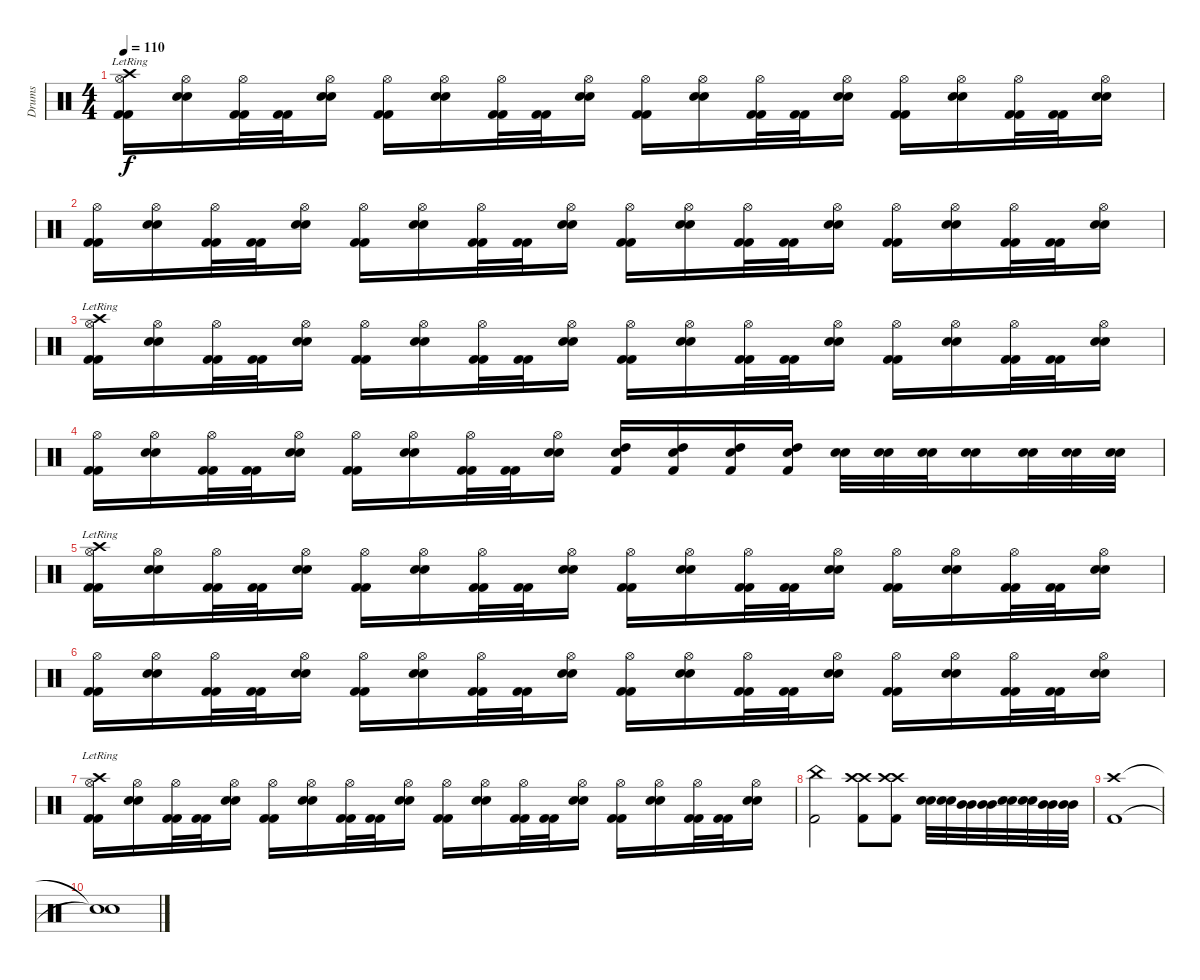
\track ("Drums" "Drums") {instrument percussion}
\staff {score}
\articulation defaults
\ts (4 4)
\tempo 110
\clef neutral
\ks c
("Kick (hit) 2" "Kick (hit) 2" "Hi-Hat (open)" "Crash high (hit)"{lr}).16{dy f} ("Snare (hit) 2" "Snare (hit) 2" "Hi-Hat (open)").16 ("Kick (hit) 2" "Kick (hit) 2" "Hi-Hat (open)").32 ("Kick (hit) 2" "Kick (hit) 2").32 ("Snare (hit) 2" "Snare (hit) 2" "Hi-Hat (open)").16 ("Kick (hit) 2" "Kick (hit) 2" "Hi-Hat (open)").16 ("Snare (hit) 2" "Snare (hit) 2" "Hi-Hat (open)").16 ("Kick (hit) 2" "Kick (hit) 2" "Hi-Hat (open)").32 ("Kick (hit) 2" "Kick (hit) 2").32 ("Snare (hit) 2" "Snare (hit) 2" "Hi-Hat (open)").16 ("Kick (hit) 2" "Kick (hit) 2" "Hi-Hat (open)").16 ("Snare (hit) 2" "Snare (hit) 2" "Hi-Hat (open)").16 ("Kick (hit) 2" "Kick (hit) 2" "Hi-Hat (open)").32 ("Kick (hit) 2" "Kick (hit) 2").32 ("Snare (hit) 2" "Snare (hit) 2" "Hi-Hat (open)").16 ("Kick (hit) 2" "Kick (hit) 2" "Hi-Hat (open)").16 ("Snare (hit) 2" "Snare (hit) 2" "Hi-Hat (open)").16 ("Kick (hit) 2" "Kick (hit) 2" "Hi-Hat (open)").32 ("Kick (hit) 2" "Kick (hit) 2").32 ("Snare (hit) 2" "Snare (hit) 2" "Hi-Hat (open)").16 |
("Kick (hit) 2" "Kick (hit) 2" "Hi-Hat (open)").16 ("Snare (hit) 2" "Snare (hit) 2" "Hi-Hat (open)").16 ("Kick (hit) 2" "Kick (hit) 2" "Hi-Hat (open)").32 ("Kick (hit) 2" "Kick (hit) 2").32 ("Snare (hit) 2" "Snare (hit) 2" "Hi-Hat (open)").16 ("Kick (hit) 2" "Kick (hit) 2" "Hi-Hat (open)").16 ("Snare (hit) 2" "Snare (hit) 2" "Hi-Hat (open)").16 ("Kick (hit) 2" "Kick (hit) 2" "Hi-Hat (open)").32 ("Kick (hit) 2" "Kick (hit) 2").32 ("Snare (hit) 2" "Snare (hit) 2" "Hi-Hat (open)").16 ("Kick (hit) 2" "Kick (hit) 2" "Hi-Hat (open)").16 ("Snare (hit) 2" "Snare (hit) 2" "Hi-Hat (open)").16 ("Kick (hit) 2" "Kick (hit) 2" "Hi-Hat (open)").32 ("Kick (hit) 2" "Kick (hit) 2").32 ("Snare (hit) 2" "Snare (hit) 2" "Hi-Hat (open)").16 ("Kick (hit) 2" "Kick (hit) 2" "Hi-Hat (open)").16 ("Snare (hit) 2" "Snare (hit) 2" "Hi-Hat (open)").16 ("Kick (hit) 2" "Kick (hit) 2" "Hi-Hat (open)").32 ("Kick (hit) 2" "Kick (hit) 2").32 ("Snare (hit) 2" "Snare (hit) 2" "Hi-Hat (open)").16 |
("Kick (hit) 2" "Kick (hit) 2" "Hi-Hat (open)" "Crash high (hit)"{lr}).16 ("Snare (hit) 2" "Snare (hit) 2" "Hi-Hat (open)").16 ("Kick (hit) 2" "Kick (hit) 2" "Hi-Hat (open)").32 ("Kick (hit) 2" "Kick (hit) 2").32 ("Snare (hit) 2" "Snare (hit) 2" "Hi-Hat (open)").16 ("Kick (hit) 2" "Kick (hit) 2" "Hi-Hat (open)").16 ("Snare (hit) 2" "Snare (hit) 2" "Hi-Hat (open)").16 ("Kick (hit) 2" "Kick (hit) 2" "Hi-Hat (open)").32 ("Kick (hit) 2" "Kick (hit) 2").32 ("Snare (hit) 2" "Snare (hit) 2" "Hi-Hat (open)").16 ("Kick (hit) 2" "Kick (hit) 2" "Hi-Hat (open)").16 ("Snare (hit) 2" "Snare (hit) 2" "Hi-Hat (open)").16 ("Kick (hit) 2" "Kick (hit) 2" "Hi-Hat (open)").32 ("Kick (hit) 2" "Kick (hit) 2").32 ("Snare (hit) 2" "Snare (hit) 2" "Hi-Hat (open)").16 ("Kick (hit) 2" "Kick (hit) 2" "Hi-Hat (open)").16 ("Snare (hit) 2" "Snare (hit) 2" "Hi-Hat (open)").16 ("Kick (hit) 2" "Kick (hit) 2" "Hi-Hat (open)").32 ("Kick (hit) 2" "Kick (hit) 2").32 ("Snare (hit) 2" "Snare (hit) 2" "Hi-Hat (open)").16 |
("Kick (hit) 2" "Kick (hit) 2" "Hi-Hat (open)").16 ("Snare (hit) 2" "Snare (hit) 2" "Hi-Hat (open)").16 ("Kick (hit) 2" "Kick (hit) 2" "Hi-Hat (open)").32 ("Kick (hit) 2" "Kick (hit) 2").32 ("Snare (hit) 2" "Snare (hit) 2" "Hi-Hat (open)").16 ("Kick (hit) 2" "Kick (hit) 2" "Hi-Hat (open)").16 ("Snare (hit) 2" "Snare (hit) 2" "Hi-Hat (open)").16 ("Kick (hit) 2" "Kick (hit) 2" "Hi-Hat (open)").32 ("Kick (hit) 2" "Kick (hit) 2").32 ("Snare (hit) 2" "Snare (hit) 2" "Hi-Hat (open)").16 ("Snare (hit) 2" "High Tom (hit)" "Kick (hit) 2").16 ("Snare (hit) 2" "High Tom (hit)" "Kick (hit) 2").16 ("Snare (hit) 2" "High Tom (hit)" "Kick (hit) 2").16 ("Snare (hit) 2" "High Tom (hit)" "Kick (hit) 2").16 ("Snare (hit) 2" "Snare (hit) 2").32 ("Snare (hit) 2" "Snare (hit) 2").32 ("Snare (hit) 2" "Snare (hit) 2").32 ("Snare (hit) 2" "Snare (hit) 2").16 ("Snare (hit) 2" "Snare (hit) 2").32 ("Snare (hit) 2" "Snare (hit) 2").32 ("Snare (hit) 2" "Snare (hit) 2").32 |
("Kick (hit) 2" "Kick (hit) 2" "Hi-Hat (open)" "Crash high (hit)"{lr}).16 ("Snare (hit) 2" "Snare (hit) 2" "Hi-Hat (open)").16 ("Kick (hit) 2" "Kick (hit) 2" "Hi-Hat (open)").32 ("Kick (hit) 2" "Kick (hit) 2").32 ("Snare (hit) 2" "Snare (hit) 2" "Hi-Hat (open)").16 ("Kick (hit) 2" "Kick (hit) 2" "Hi-Hat (open)").16 ("Snare (hit) 2" "Snare (hit) 2" "Hi-Hat (open)").16 ("Kick (hit) 2" "Kick (hit) 2" "Hi-Hat (open)").32 ("Kick (hit) 2" "Kick (hit) 2").32 ("Snare (hit) 2" "Snare (hit) 2" "Hi-Hat (open)").16 ("Kick (hit) 2" "Kick (hit) 2" "Hi-Hat (open)").16 ("Snare (hit) 2" "Snare (hit) 2" "Hi-Hat (open)").16 ("Kick (hit) 2" "Kick (hit) 2" "Hi-Hat (open)").32 ("Kick (hit) 2" "Kick (hit) 2").32 ("Snare (hit) 2" "Snare (hit) 2" "Hi-Hat (open)").16 ("Kick (hit) 2" "Kick (hit) 2" "Hi-Hat (open)").16 ("Snare (hit) 2" "Snare (hit) 2" "Hi-Hat (open)").16 ("Kick (hit) 2" "Kick (hit) 2" "Hi-Hat (open)").32 ("Kick (hit) 2" "Kick (hit) 2").32 ("Snare (hit) 2" "Snare (hit) 2" "Hi-Hat (open)").16 |
("Kick (hit) 2" "Kick (hit) 2" "Hi-Hat (open)").16 ("Snare (hit) 2" "Snare (hit) 2" "Hi-Hat (open)").16 ("Kick (hit) 2" "Kick (hit) 2" "Hi-Hat (open)").32 ("Kick (hit) 2" "Kick (hit) 2").32 ("Snare (hit) 2" "Snare (hit) 2" "Hi-Hat (open)").16 ("Kick (hit) 2" "Kick (hit) 2" "Hi-Hat (open)").16 ("Snare (hit) 2" "Snare (hit) 2" "Hi-Hat (open)").16 ("Kick (hit) 2" "Kick (hit) 2" "Hi-Hat (open)").32 ("Kick (hit) 2" "Kick (hit) 2").32 ("Snare (hit) 2" "Snare (hit) 2" "Hi-Hat (open)").16 ("Kick (hit) 2" "Kick (hit) 2" "Hi-Hat (open)").16 ("Snare (hit) 2" "Snare (hit) 2" "Hi-Hat (open)").16 ("Kick (hit) 2" "Kick (hit) 2" "Hi-Hat (open)").32 ("Kick (hit) 2" "Kick (hit) 2").32 ("Snare (hit) 2" "Snare (hit) 2" "Hi-Hat (open)").16 ("Kick (hit) 2" "Kick (hit) 2" "Hi-Hat (open)").16 ("Snare (hit) 2" "Snare (hit) 2" "Hi-Hat (open)").16 ("Kick (hit) 2" "Kick (hit) 2" "Hi-Hat (open)").32 ("Kick (hit) 2" "Kick (hit) 2").32 ("Snare (hit) 2" "Snare (hit) 2" "Hi-Hat (open)").16 |
("Kick (hit) 2" "Kick (hit) 2" "Hi-Hat (open)" "Crash high (hit)"{lr}).16 ("Snare (hit) 2" "Snare (hit) 2" "Hi-Hat (open)").16 ("Kick (hit) 2" "Kick (hit) 2" "Hi-Hat (open)").32 ("Kick (hit) 2" "Kick (hit) 2").32 ("Snare (hit) 2" "Snare (hit) 2" "Hi-Hat (open)").16 ("Kick (hit) 2" "Kick (hit) 2" "Hi-Hat (open)").16 ("Snare (hit) 2" "Snare (hit) 2" "Hi-Hat (open)").16 ("Kick (hit) 2" "Kick (hit) 2" "Hi-Hat (open)").32 ("Kick (hit) 2" "Kick (hit) 2").32 ("Snare (hit) 2" "Snare (hit) 2" "Hi-Hat (open)").16 ("Kick (hit) 2" "Kick (hit) 2" "Hi-Hat (open)").16 ("Snare (hit) 2" "Snare (hit) 2" "Hi-Hat (open)").16 ("Kick (hit) 2" "Kick (hit) 2" "Hi-Hat (open)").32 ("Kick (hit) 2" "Kick (hit) 2").32 ("Snare (hit) 2" "Snare (hit) 2" "Hi-Hat (open)").16 ("Kick (hit) 2" "Kick (hit) 2" "Hi-Hat (open)").16 ("Snare (hit) 2" "Snare (hit) 2" "Hi-Hat (open)").16 ("Kick (hit) 2" "Kick (hit) 2" "Hi-Hat (open)").32 ("Kick (hit) 2" "Kick (hit) 2").32 ("Snare (hit) 2" "Snare (hit) 2" "Hi-Hat (open)").16 |
("China (hit)" "Kick (hit) 2").2 ("Crash high (hit)" "Crash high (hit)" "Kick (hit) 2").8 ("Crash high (hit)" "Crash high (hit)" "Kick (hit) 2").8 ("Snare (hit) 2" "Snare (hit) 2").32 ("Snare (hit) 2" "Snare (hit) 2").32 ("Mid Tom (hit)" "Mid Tom (hit)").32 ("Mid Tom (hit)" "Mid Tom (hit)").32 ("Snare (hit) 2" "Snare (hit) 2").32 ("Snare (hit) 2" "Snare (hit) 2").32 ("Mid Tom (hit)" "Mid Tom (hit)").32 ("Mid Tom (hit)" "Mid Tom (hit)").32 |
("Crash high (hit)" "Kick (hit) 2").1 |
("Snare (hit)"{t} "Snare (hit)"{t}).1
